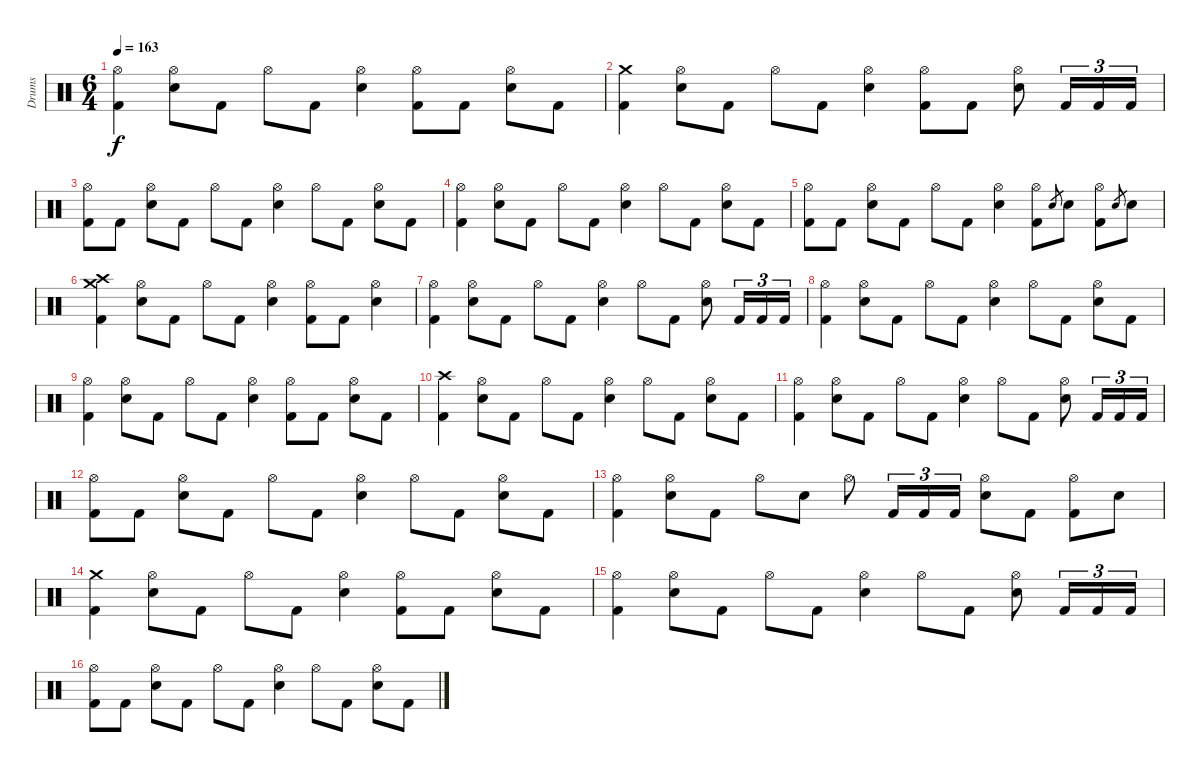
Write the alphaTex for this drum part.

\track ("Drums" "Drums") {instrument percussion}
\staff {score}
\articulation defaults
\ts (6 4)
\tempo 163
\clef neutral
\ks c
("Hi-Hat (open)" "Kick (hit) 2").4{dy f} ("Hi-Hat (open)" "Electric Snare (hit)").8 "Kick (hit) 2".8 "Hi-Hat (open)".8 "Kick (hit) 2".8 ("Hi-Hat (open)" "Electric Snare (hit)").4 ("Hi-Hat (open)" "Kick (hit) 2").8 "Kick (hit) 2".8 ("Hi-Hat (open)" "Electric Snare (hit)").8 "Kick (hit) 2".8 |
("Crash medium (hit)" "Kick (hit) 2").4 ("Hi-Hat (open)" "Electric Snare (hit)").8 "Kick (hit) 2".8 "Hi-Hat (open)".8 "Kick (hit) 2".8 ("Hi-Hat (open)" "Electric Snare (hit)").4 ("Hi-Hat (open)" "Kick (hit) 2").8 "Kick (hit) 2".8 ("Hi-Hat (open)" "Electric Snare (hit)").8 "Kick (hit) 2".16{tu (3 2)} "Kick (hit) 2".16{tu (3 2)} "Kick (hit) 2".16{tu (3 2)} |
("Hi-Hat (open)" "Kick (hit) 2").8 "Kick (hit) 2".8 ("Hi-Hat (open)" "Electric Snare (hit)").8 "Kick (hit) 2".8 "Hi-Hat (open)".8 "Kick (hit) 2".8 ("Hi-Hat (open)" "Electric Snare (hit)").4 "Hi-Hat (open)".8 "Kick (hit) 2".8 ("Hi-Hat (open)" "Electric Snare (hit)").8 "Kick (hit) 2".8 |
("Hi-Hat (open)" "Kick (hit) 2").4 ("Hi-Hat (open)" "Electric Snare (hit)").8 "Kick (hit) 2".8 "Hi-Hat (open)".8 "Kick (hit) 2".8 ("Hi-Hat (open)" "Electric Snare (hit)").4 "Hi-Hat (open)".8 "Kick (hit) 2".8 ("Hi-Hat (open)" "Electric Snare (hit)").8 "Kick (hit) 2".8 |
("Hi-Hat (open)" "Kick (hit) 2").8 "Kick (hit) 2".8 ("Hi-Hat (open)" "Electric Snare (hit)").8 "Kick (hit) 2".8 "Hi-Hat (open)".8 "Kick (hit) 2".8 ("Hi-Hat (open)" "Electric Snare (hit)").4 ("Hi-Hat (open)" "Kick (hit) 2").8 "Electric Snare (hit)".8{gr} "Electric Snare (hit)".8 ("Hi-Hat (open)" "Kick (hit) 2").8 "Electric Snare (hit)".8{gr} "Electric Snare (hit)".8 |
("Crash medium (hit)" "Crash high (hit)" "Kick (hit) 2").4 ("Hi-Hat (open)" "Electric Snare (hit)").8 "Kick (hit) 2".8 "Hi-Hat (open)".8 "Kick (hit) 2".8 ("Hi-Hat (open)" "Electric Snare (hit)").4 ("Hi-Hat (open)" "Kick (hit) 2").8 "Kick (hit) 2".8 ("Hi-Hat (open)" "Electric Snare (hit)").4 |
("Hi-Hat (open)" "Kick (hit) 2").4 ("Hi-Hat (open)" "Electric Snare (hit)").8 "Kick (hit) 2".8 "Hi-Hat (open)".8 "Kick (hit) 2".8 ("Hi-Hat (open)" "Electric Snare (hit)").4 "Hi-Hat (open)".8 "Kick (hit) 2".8 ("Hi-Hat (open)" "Electric Snare (hit)").8 "Kick (hit) 2".16{tu (3 2)} "Kick (hit) 2".16{tu (3 2)} "Kick (hit) 2".16{tu (3 2)} |
("Hi-Hat (open)" "Kick (hit) 2").4 ("Hi-Hat (open)" "Electric Snare (hit)").8 "Kick (hit) 2".8 "Hi-Hat (open)".8 "Kick (hit) 2".8 ("Hi-Hat (open)" "Electric Snare (hit)").4 "Hi-Hat (open)".8 "Kick (hit) 2".8 ("Hi-Hat (open)" "Electric Snare (hit)").8 "Kick (hit) 2".8 |
("Hi-Hat (open)" "Kick (hit) 2").4 ("Hi-Hat (open)" "Electric Snare (hit)").8 "Kick (hit) 2".8 "Hi-Hat (open)".8 "Kick (hit) 2".8 ("Hi-Hat (open)" "Electric Snare (hit)").4 ("Hi-Hat (open)" "Kick (hit) 2").8 "Kick (hit) 2".8 ("Hi-Hat (open)" "Electric Snare (hit)").8 "Kick (hit) 2".8 |
("Crash high (hit)" "Kick (hit) 2").4 ("Hi-Hat (open)" "Electric Snare (hit)").8 "Kick (hit) 2".8 "Hi-Hat (open)".8 "Kick (hit) 2".8 ("Hi-Hat (open)" "Electric Snare (hit)").4 "Hi-Hat (open)".8 "Kick (hit) 2".8 ("Hi-Hat (open)" "Electric Snare (hit)").8 "Kick (hit) 2".8 |
("Hi-Hat (open)" "Kick (hit) 2").4 ("Hi-Hat (open)" "Electric Snare (hit)").8 "Kick (hit) 2".8 "Hi-Hat (open)".8 "Kick (hit) 2".8 ("Hi-Hat (open)" "Electric Snare (hit)").4 "Hi-Hat (open)".8 "Kick (hit) 2".8 ("Hi-Hat (open)" "Electric Snare (hit)").8 "Kick (hit) 2".16{tu (3 2)} "Kick (hit) 2".16{tu (3 2)} "Kick (hit) 2".16{tu (3 2)} |
("Hi-Hat (open)" "Kick (hit) 2").8 "Kick (hit) 2".8 ("Hi-Hat (open)" "Electric Snare (hit)").8 "Kick (hit) 2".8 "Hi-Hat (open)".8 "Kick (hit) 2".8 ("Hi-Hat (open)" "Electric Snare (hit)").4 "Hi-Hat (open)".8 "Kick (hit) 2".8 ("Hi-Hat (open)" "Electric Snare (hit)").8 "Kick (hit) 2".8 |
("Hi-Hat (open)" "Kick (hit) 2").4 ("Hi-Hat (open)" "Electric Snare (hit)").8 "Kick (hit) 2".8 "Hi-Hat (open)".8 "Electric Snare (hit)".8 "Hi-Hat (open)".8 "Kick (hit) 2".16{tu (3 2)} "Kick (hit) 2".16{tu (3 2)} "Kick (hit) 2".16{tu (3 2)} ("Hi-Hat (open)" "Electric Snare (hit)").8 "Kick (hit) 2".8 ("Hi-Hat (open)" "Kick (hit) 2").8 "Electric Snare (hit)".8 |
("Crash medium (hit)" "Kick (hit) 2").4 ("Hi-Hat (open)" "Electric Snare (hit)").8 "Kick (hit) 2".8 "Hi-Hat (open)".8 "Kick (hit) 2".8 ("Hi-Hat (open)" "Electric Snare (hit)").4 ("Hi-Hat (open)" "Kick (hit) 2").8 "Kick (hit) 2".8 ("Hi-Hat (open)" "Electric Snare (hit)").8 "Kick (hit) 2".8 |
("Hi-Hat (open)" "Kick (hit) 2").4 ("Hi-Hat (open)" "Electric Snare (hit)").8 "Kick (hit) 2".8 "Hi-Hat (open)".8 "Kick (hit) 2".8 ("Hi-Hat (open)" "Electric Snare (hit)").4 "Hi-Hat (open)".8 "Kick (hit) 2".8 ("Hi-Hat (open)" "Electric Snare (hit)").8 "Kick (hit) 2".16{tu (3 2)} "Kick (hit) 2".16{tu (3 2)} "Kick (hit) 2".16{tu (3 2)} |
("Hi-Hat (open)" "Kick (hit) 2").8 "Kick (hit) 2".8 ("Hi-Hat (open)" "Electric Snare (hit)").8 "Kick (hit) 2".8 "Hi-Hat (open)".8 "Kick (hit) 2".8 ("Hi-Hat (open)" "Electric Snare (hit)").4 "Hi-Hat (open)".8 "Kick (hit) 2".8 ("Hi-Hat (open)" "Electric Snare (hit)").8 "Kick (hit) 2".8
